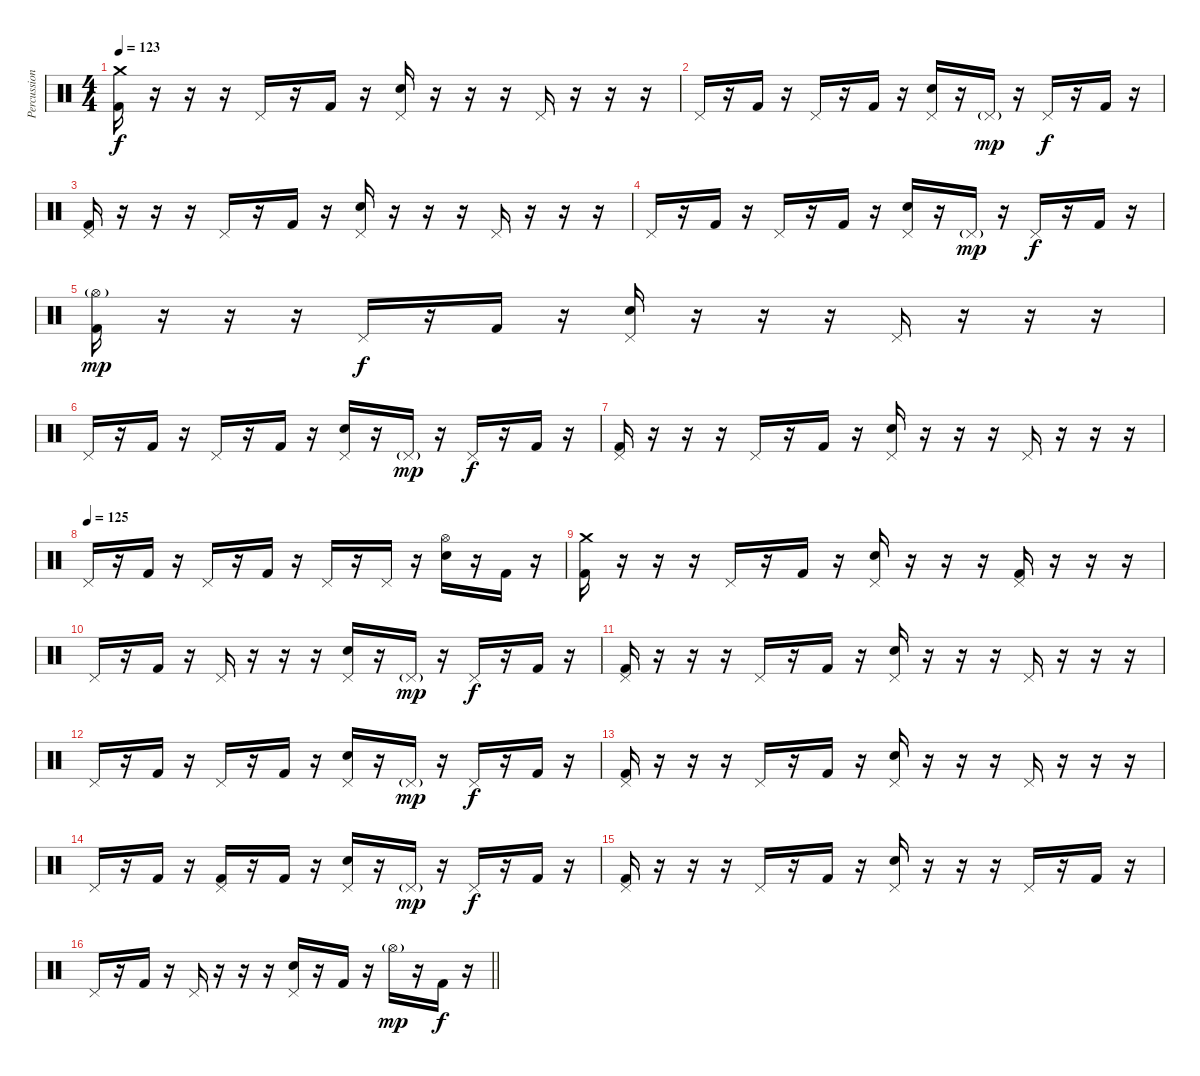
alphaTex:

\track ("Percussion" "Percussion") {instrument percussion}
\staff {score}
\articulation defaults
\ts (4 4)
\section ("" "")
\tempo 123
\clef neutral
\ks c
("Kick (hit) 2" "Crash medium (hit)").16{dy f} r.16 r.16 r.16 "Pedal Hi-Hat (hit)".16 r.16 "Kick (hit) 2".16 r.16 ("Electric Snare (hit)" "Pedal Hi-Hat (hit)").16 r.16 r.16 r.16 "Pedal Hi-Hat (hit)".16 r.16 r.16 r.16 |
"Pedal Hi-Hat (hit)".16 r.16 "Kick (hit) 2".16 r.16 "Pedal Hi-Hat (hit)".16 r.16 "Kick (hit) 2".16 r.16 ("Electric Snare (hit)" "Pedal Hi-Hat (hit)").16 r.16 "Pedal Hi-Hat (hit)"{g}.16{dy mp} r.16 "Pedal Hi-Hat (hit)".16{dy f} r.16 "Kick (hit) 2".16 r.16 |
("Kick (hit) 2" "Pedal Hi-Hat (hit)").16 r.16 r.16 r.16 "Pedal Hi-Hat (hit)".16 r.16 "Kick (hit) 2".16 r.16 ("Electric Snare (hit)" "Pedal Hi-Hat (hit)").16 r.16 r.16 r.16 "Pedal Hi-Hat (hit)".16 r.16 r.16 r.16 |
"Pedal Hi-Hat (hit)".16 r.16 "Kick (hit) 2".16 r.16 "Pedal Hi-Hat (hit)".16 r.16 "Kick (hit) 2".16 r.16 ("Electric Snare (hit)" "Pedal Hi-Hat (hit)").16 r.16 "Pedal Hi-Hat (hit)"{g}.16{dy mp} r.16 "Pedal Hi-Hat (hit)".16{dy f} r.16 "Kick (hit) 2".16 r.16 |
("Kick (hit) 2" "Hi-Hat (open)"{g}).16{dy mp} r.16 r.16 r.16 "Pedal Hi-Hat (hit)".16{dy f} r.16 "Kick (hit) 2".16 r.16 ("Electric Snare (hit)" "Pedal Hi-Hat (hit)").16 r.16 r.16 r.16 "Pedal Hi-Hat (hit)".16 r.16 r.16 r.16 |
"Pedal Hi-Hat (hit)".16 r.16 "Kick (hit) 2".16 r.16 "Pedal Hi-Hat (hit)".16 r.16 "Kick (hit) 2".16 r.16 ("Electric Snare (hit)" "Pedal Hi-Hat (hit)").16 r.16 "Pedal Hi-Hat (hit)"{g}.16{dy mp} r.16 "Pedal Hi-Hat (hit)".16{dy f} r.16 "Kick (hit) 2".16 r.16 |
("Kick (hit) 2" "Pedal Hi-Hat (hit)").16 r.16 r.16 r.16 "Pedal Hi-Hat (hit)".16 r.16 "Kick (hit) 2".16 r.16 ("Electric Snare (hit)" "Pedal Hi-Hat (hit)").16 r.16 r.16 r.16 "Pedal Hi-Hat (hit)".16 r.16 r.16 r.16 |
\tempo (125)
"Pedal Hi-Hat (hit)".16 r.16 "Kick (hit) 2".16 r.16 "Pedal Hi-Hat (hit)".16 r.16 "Kick (hit) 2".16 r.16 "Pedal Hi-Hat (hit)".16 r.16 "Pedal Hi-Hat (hit)".16 r.16 ("Electric Snare (hit)" "Hi-Hat (open)").16 r.16 "Kick (hit) 2".16 r.16 |
("Kick (hit) 2" "Crash medium (hit)").16 r.16 r.16 r.16 "Pedal Hi-Hat (hit)".16 r.16 "Kick (hit) 2".16 r.16 ("Electric Snare (hit)" "Pedal Hi-Hat (hit)").16 r.16 r.16 r.16 ("Kick (hit) 2" "Pedal Hi-Hat (hit)").16 r.16 r.16 r.16 |
"Pedal Hi-Hat (hit)".16 r.16 "Kick (hit) 2".16 r.16 "Pedal Hi-Hat (hit)".16 r.16 r.16 r.16 ("Electric Snare (hit)" "Pedal Hi-Hat (hit)").16 r.16 "Pedal Hi-Hat (hit)"{g}.16{dy mp} r.16 "Pedal Hi-Hat (hit)".16{dy f} r.16 "Kick (hit) 2".16 r.16 |
("Kick (hit) 2" "Pedal Hi-Hat (hit)").16 r.16 r.16 r.16 "Pedal Hi-Hat (hit)".16 r.16 "Kick (hit) 2".16 r.16 ("Electric Snare (hit)" "Pedal Hi-Hat (hit)").16 r.16 r.16 r.16 "Pedal Hi-Hat (hit)".16 r.16 r.16 r.16 |
"Pedal Hi-Hat (hit)".16 r.16 "Kick (hit) 2".16 r.16 "Pedal Hi-Hat (hit)".16 r.16 "Kick (hit) 2".16 r.16 ("Electric Snare (hit)" "Pedal Hi-Hat (hit)").16 r.16 "Pedal Hi-Hat (hit)"{g}.16{dy mp} r.16 "Pedal Hi-Hat (hit)".16{dy f} r.16 "Kick (hit) 2".16 r.16 |
("Kick (hit) 2" "Pedal Hi-Hat (hit)").16 r.16 r.16 r.16 "Pedal Hi-Hat (hit)".16 r.16 "Kick (hit) 2".16 r.16 ("Electric Snare (hit)" "Pedal Hi-Hat (hit)").16 r.16 r.16 r.16 "Pedal Hi-Hat (hit)".16 r.16 r.16 r.16 |
"Pedal Hi-Hat (hit)".16 r.16 "Kick (hit) 2".16 r.16 ("Kick (hit) 2" "Pedal Hi-Hat (hit)").16 r.16 "Kick (hit) 2".16 r.16 ("Electric Snare (hit)" "Pedal Hi-Hat (hit)").16 r.16 "Pedal Hi-Hat (hit)"{g}.16{dy mp} r.16 "Pedal Hi-Hat (hit)".16{dy f} r.16 "Kick (hit) 2".16 r.16 |
("Kick (hit) 2" "Pedal Hi-Hat (hit)").16 r.16 r.16 r.16 "Pedal Hi-Hat (hit)".16 r.16 "Kick (hit) 2".16 r.16 ("Electric Snare (hit)" "Pedal Hi-Hat (hit)").16 r.16 r.16 r.16 "Pedal Hi-Hat (hit)".16 r.16 "Kick (hit) 2".16 r.16 |
\barLineRight lightlight "Pedal Hi-Hat (hit)".16
r.16 "Kick (hit) 2".16 r.16 "Pedal Hi-Hat (hit)".16 r.16 r.16 r.16 ("Electric Snare (hit)" "Pedal Hi-Hat (hit)").16 r.16 "Kick (hit) 2".16 r.16 "Hi-Hat (open)"{g}.16{dy mp} r.16 "Kick (hit) 2".16{dy f} r.16
